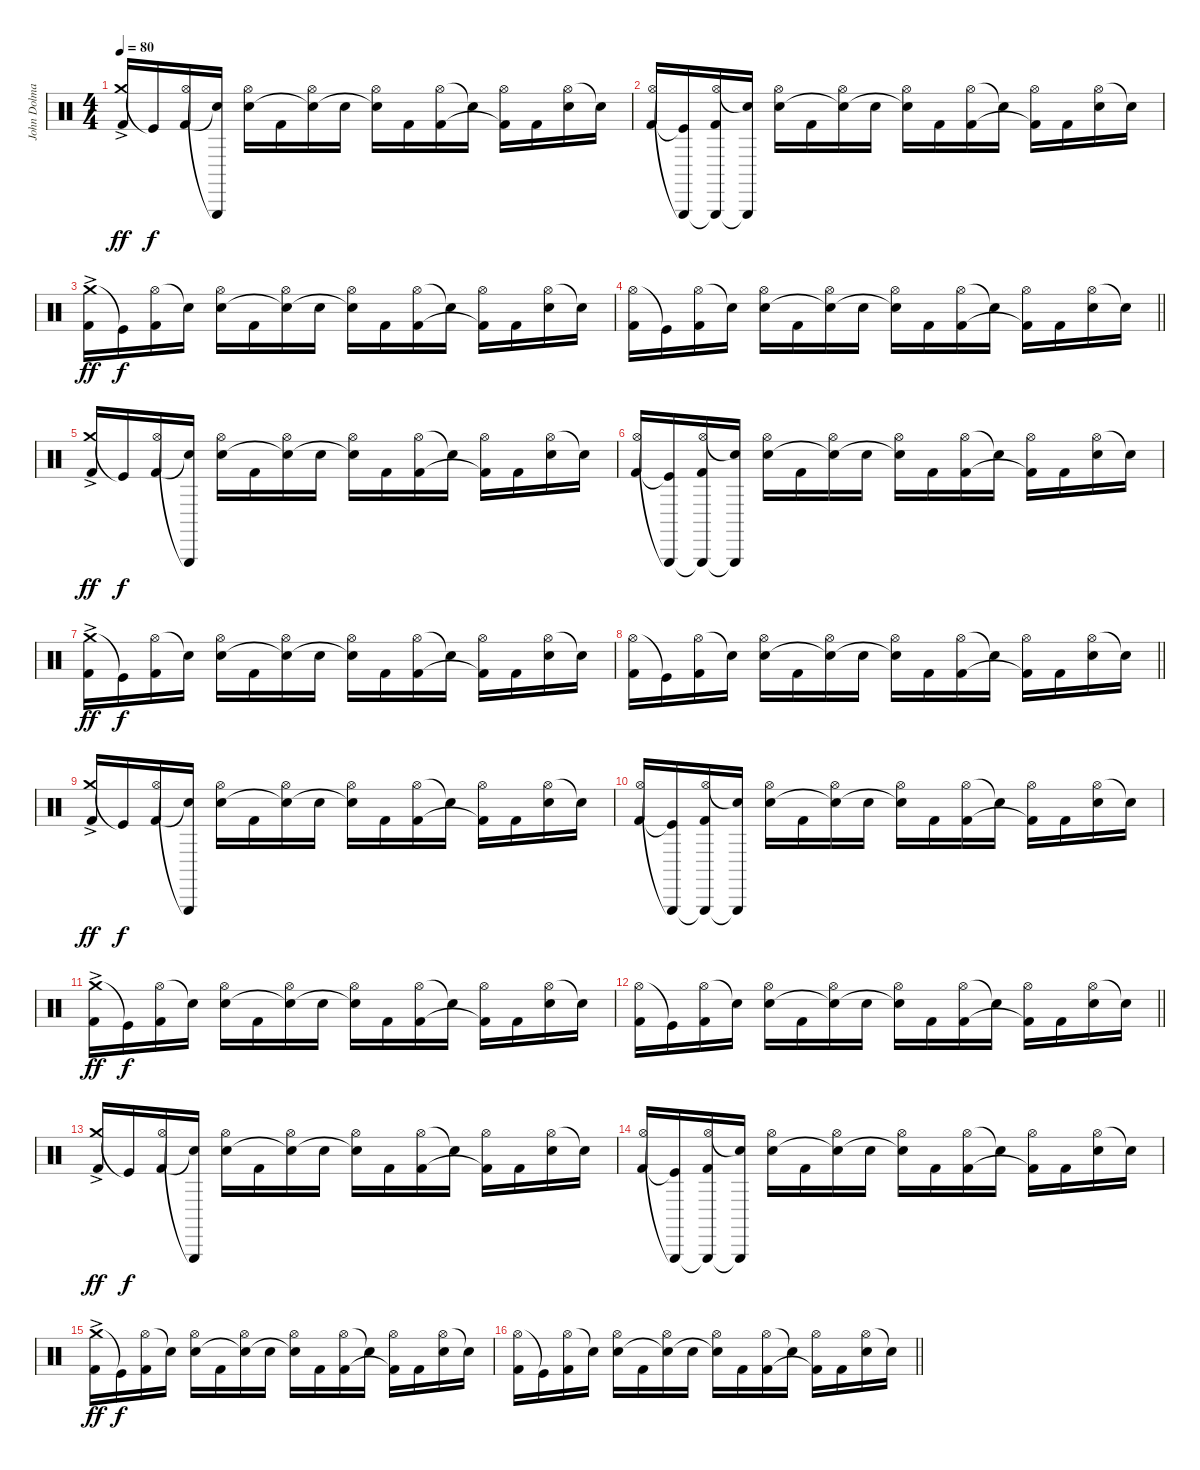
\track ("John Dolmayan (drums)" "John Dolma") {instrument percussion}
\staff
\articulation defaults
\ts (4 4)
\tempo 80
\clef neutral
\ks c
("Crash medium (hit)"{ac} "Kick (hit) 2").16{dy ff} "Kick (hit)"{t}.16{dy f} ("Hi-Hat (open)" "Kick (hit) 2").16 ("Triangle (hit)"{t} "Snare (hit)"{t}).16 ("Hi-Hat (open)" "Electric Snare (hit)").16 "Kick (hit) 2".16 ("Hi-Hat (open)" "Snare (hit)"{t}).16 "Electric Snare (hit)".16 ("Hi-Hat (open)" "Snare (hit)"{t}).16 "Kick (hit) 2".16 ("Hi-Hat (open)" "Kick (hit) 2").16 "Snare (hit)"{t}.16 ("Hi-Hat (open)" "Kick (hit) 2"{t}).16 "Kick (hit) 2".16 ("Hi-Hat (open)" "Electric Snare (hit)").16 "Snare (hit)"{t}.16 |
("Hi-Hat (open)" "Kick (hit) 2").16 ("Triangle (hit)"{t} "Kick (hit)"{t}).16 ("Triangle (hit)"{t} "Hi-Hat (open)" "Kick (hit) 2").16 ("Triangle (hit)"{t} "Snare (hit)"{t}).16 ("Hi-Hat (open)" "Electric Snare (hit)").16 "Kick (hit) 2".16 ("Hi-Hat (open)" "Snare (hit)"{t}).16 "Electric Snare (hit)".16 ("Hi-Hat (open)" "Snare (hit)"{t}).16 "Kick (hit) 2".16 ("Hi-Hat (open)" "Kick (hit) 2").16 "Snare (hit)"{t}.16 ("Hi-Hat (open)" "Kick (hit) 2"{t}).16 "Kick (hit) 2".16 ("Hi-Hat (open)" "Electric Snare (hit)").16 "Snare (hit)"{t}.16 |
("Crash medium (hit)"{ac} "Kick (hit) 2").16{dy ff} "Kick (hit)"{t}.16{dy f} ("Hi-Hat (open)" "Kick (hit) 2").16 "Snare (hit)"{t}.16 ("Hi-Hat (open)" "Electric Snare (hit)").16 "Kick (hit) 2".16 ("Hi-Hat (open)" "Snare (hit)"{t}).16 "Electric Snare (hit)".16 ("Hi-Hat (open)" "Snare (hit)"{t}).16 "Kick (hit) 2".16 ("Hi-Hat (open)" "Kick (hit) 2").16 "Snare (hit)"{t}.16 ("Hi-Hat (open)" "Kick (hit) 2"{t}).16 "Kick (hit) 2".16 ("Hi-Hat (open)" "Electric Snare (hit)").16 "Snare (hit)"{t}.16 |
\barLineRight lightlight
("Hi-Hat (open)" "Kick (hit) 2").16 "Kick (hit)"{t}.16 ("Hi-Hat (open)" "Kick (hit) 2").16 "Snare (hit)"{t}.16 ("Hi-Hat (open)" "Electric Snare (hit)").16 "Kick (hit) 2".16 ("Hi-Hat (open)" "Snare (hit)"{t}).16 "Electric Snare (hit)".16 ("Hi-Hat (open)" "Snare (hit)"{t}).16 "Kick (hit) 2".16 ("Hi-Hat (open)" "Kick (hit) 2").16 "Snare (hit)"{t}.16 ("Hi-Hat (open)" "Kick (hit) 2"{t}).16 "Kick (hit) 2".16 ("Hi-Hat (open)" "Electric Snare (hit)").16 "Snare (hit)"{t}.16 |
("Crash medium (hit)"{ac} "Kick (hit) 2").16{dy ff} "Kick (hit)"{t}.16{dy f} ("Hi-Hat (open)" "Kick (hit) 2").16 ("Triangle (hit)"{t} "Snare (hit)"{t}).16 ("Hi-Hat (open)" "Electric Snare (hit)").16 "Kick (hit) 2".16 ("Hi-Hat (open)" "Snare (hit)"{t}).16 "Electric Snare (hit)".16 ("Hi-Hat (open)" "Snare (hit)"{t}).16 "Kick (hit) 2".16 ("Hi-Hat (open)" "Kick (hit) 2").16 "Snare (hit)"{t}.16 ("Hi-Hat (open)" "Kick (hit) 2"{t}).16 "Kick (hit) 2".16 ("Hi-Hat (open)" "Electric Snare (hit)").16 "Snare (hit)"{t}.16 |
("Hi-Hat (open)" "Kick (hit) 2").16 ("Triangle (hit)"{t} "Kick (hit)"{t}).16 ("Triangle (hit)"{t} "Hi-Hat (open)" "Kick (hit) 2").16 ("Triangle (hit)"{t} "Snare (hit)"{t}).16 ("Hi-Hat (open)" "Electric Snare (hit)").16 "Kick (hit) 2".16 ("Hi-Hat (open)" "Snare (hit)"{t}).16 "Electric Snare (hit)".16 ("Hi-Hat (open)" "Snare (hit)"{t}).16 "Kick (hit) 2".16 ("Hi-Hat (open)" "Kick (hit) 2").16 "Snare (hit)"{t}.16 ("Hi-Hat (open)" "Kick (hit) 2"{t}).16 "Kick (hit) 2".16 ("Hi-Hat (open)" "Electric Snare (hit)").16 "Snare (hit)"{t}.16 |
("Crash medium (hit)"{ac} "Kick (hit) 2").16{dy ff} "Kick (hit)"{t}.16{dy f} ("Hi-Hat (open)" "Kick (hit) 2").16 "Snare (hit)"{t}.16 ("Hi-Hat (open)" "Electric Snare (hit)").16 "Kick (hit) 2".16 ("Hi-Hat (open)" "Snare (hit)"{t}).16 "Electric Snare (hit)".16 ("Hi-Hat (open)" "Snare (hit)"{t}).16 "Kick (hit) 2".16 ("Hi-Hat (open)" "Kick (hit) 2").16 "Snare (hit)"{t}.16 ("Hi-Hat (open)" "Kick (hit) 2"{t}).16 "Kick (hit) 2".16 ("Hi-Hat (open)" "Electric Snare (hit)").16 "Snare (hit)"{t}.16 |
\barLineRight lightlight
("Hi-Hat (open)" "Kick (hit) 2").16 "Kick (hit)"{t}.16 ("Hi-Hat (open)" "Kick (hit) 2").16 "Snare (hit)"{t}.16 ("Hi-Hat (open)" "Electric Snare (hit)").16 "Kick (hit) 2".16 ("Hi-Hat (open)" "Snare (hit)"{t}).16 "Electric Snare (hit)".16 ("Hi-Hat (open)" "Snare (hit)"{t}).16 "Kick (hit) 2".16 ("Hi-Hat (open)" "Kick (hit) 2").16 "Snare (hit)"{t}.16 ("Hi-Hat (open)" "Kick (hit) 2"{t}).16 "Kick (hit) 2".16 ("Hi-Hat (open)" "Electric Snare (hit)").16 "Snare (hit)"{t}.16 |
("Crash medium (hit)"{ac} "Kick (hit) 2").16{dy ff} "Kick (hit)"{t}.16{dy f} ("Hi-Hat (open)" "Kick (hit) 2").16 ("Triangle (hit)"{t} "Snare (hit)"{t}).16 ("Hi-Hat (open)" "Electric Snare (hit)").16 "Kick (hit) 2".16 ("Hi-Hat (open)" "Snare (hit)"{t}).16 "Electric Snare (hit)".16 ("Hi-Hat (open)" "Snare (hit)"{t}).16 "Kick (hit) 2".16 ("Hi-Hat (open)" "Kick (hit) 2").16 "Snare (hit)"{t}.16 ("Hi-Hat (open)" "Kick (hit) 2"{t}).16 "Kick (hit) 2".16 ("Hi-Hat (open)" "Electric Snare (hit)").16 "Snare (hit)"{t}.16 |
("Hi-Hat (open)" "Kick (hit) 2").16 ("Triangle (hit)"{t} "Kick (hit)"{t}).16 ("Triangle (hit)"{t} "Hi-Hat (open)" "Kick (hit) 2").16 ("Triangle (hit)"{t} "Snare (hit)"{t}).16 ("Hi-Hat (open)" "Electric Snare (hit)").16 "Kick (hit) 2".16 ("Hi-Hat (open)" "Snare (hit)"{t}).16 "Electric Snare (hit)".16 ("Hi-Hat (open)" "Snare (hit)"{t}).16 "Kick (hit) 2".16 ("Hi-Hat (open)" "Kick (hit) 2").16 "Snare (hit)"{t}.16 ("Hi-Hat (open)" "Kick (hit) 2"{t}).16 "Kick (hit) 2".16 ("Hi-Hat (open)" "Electric Snare (hit)").16 "Snare (hit)"{t}.16 |
("Crash medium (hit)"{ac} "Kick (hit) 2").16{dy ff} "Kick (hit)"{t}.16{dy f} ("Hi-Hat (open)" "Kick (hit) 2").16 "Snare (hit)"{t}.16 ("Hi-Hat (open)" "Electric Snare (hit)").16 "Kick (hit) 2".16 ("Hi-Hat (open)" "Snare (hit)"{t}).16 "Electric Snare (hit)".16 ("Hi-Hat (open)" "Snare (hit)"{t}).16 "Kick (hit) 2".16 ("Hi-Hat (open)" "Kick (hit) 2").16 "Snare (hit)"{t}.16 ("Hi-Hat (open)" "Kick (hit) 2"{t}).16 "Kick (hit) 2".16 ("Hi-Hat (open)" "Electric Snare (hit)").16 "Snare (hit)"{t}.16 |
\barLineRight lightlight
("Hi-Hat (open)" "Kick (hit) 2").16 "Kick (hit)"{t}.16 ("Hi-Hat (open)" "Kick (hit) 2").16 "Snare (hit)"{t}.16 ("Hi-Hat (open)" "Electric Snare (hit)").16 "Kick (hit) 2".16 ("Hi-Hat (open)" "Snare (hit)"{t}).16 "Electric Snare (hit)".16 ("Hi-Hat (open)" "Snare (hit)"{t}).16 "Kick (hit) 2".16 ("Hi-Hat (open)" "Kick (hit) 2").16 "Snare (hit)"{t}.16 ("Hi-Hat (open)" "Kick (hit) 2"{t}).16 "Kick (hit) 2".16 ("Hi-Hat (open)" "Electric Snare (hit)").16 "Snare (hit)"{t}.16 |
("Crash medium (hit)"{ac} "Kick (hit) 2").16{dy ff} "Kick (hit)"{t}.16{dy f} ("Hi-Hat (open)" "Kick (hit) 2").16 ("Triangle (hit)"{t} "Snare (hit)"{t}).16 ("Hi-Hat (open)" "Electric Snare (hit)").16 "Kick (hit) 2".16 ("Hi-Hat (open)" "Snare (hit)"{t}).16 "Electric Snare (hit)".16 ("Hi-Hat (open)" "Snare (hit)"{t}).16 "Kick (hit) 2".16 ("Hi-Hat (open)" "Kick (hit) 2").16 "Snare (hit)"{t}.16 ("Hi-Hat (open)" "Kick (hit) 2"{t}).16 "Kick (hit) 2".16 ("Hi-Hat (open)" "Electric Snare (hit)").16 "Snare (hit)"{t}.16 |
("Hi-Hat (open)" "Kick (hit) 2").16 ("Triangle (hit)"{t} "Kick (hit)"{t}).16 ("Triangle (hit)"{t} "Hi-Hat (open)" "Kick (hit) 2").16 ("Triangle (hit)"{t} "Snare (hit)"{t}).16 ("Hi-Hat (open)" "Electric Snare (hit)").16 "Kick (hit) 2".16 ("Hi-Hat (open)" "Snare (hit)"{t}).16 "Electric Snare (hit)".16 ("Hi-Hat (open)" "Snare (hit)"{t}).16 "Kick (hit) 2".16 ("Hi-Hat (open)" "Kick (hit) 2").16 "Snare (hit)"{t}.16 ("Hi-Hat (open)" "Kick (hit) 2"{t}).16 "Kick (hit) 2".16 ("Hi-Hat (open)" "Electric Snare (hit)").16 "Snare (hit)"{t}.16 |
("Crash medium (hit)"{ac} "Kick (hit) 2").16{dy ff} "Kick (hit)"{t}.16{dy f} ("Hi-Hat (open)" "Kick (hit) 2").16 "Snare (hit)"{t}.16 ("Hi-Hat (open)" "Electric Snare (hit)").16 "Kick (hit) 2".16 ("Hi-Hat (open)" "Snare (hit)"{t}).16 "Electric Snare (hit)".16 ("Hi-Hat (open)" "Snare (hit)"{t}).16 "Kick (hit) 2".16 ("Hi-Hat (open)" "Kick (hit) 2").16 "Snare (hit)"{t}.16 ("Hi-Hat (open)" "Kick (hit) 2"{t}).16 "Kick (hit) 2".16 ("Hi-Hat (open)" "Electric Snare (hit)").16 "Snare (hit)"{t}.16 |
\barLineRight lightlight
("Hi-Hat (open)" "Kick (hit) 2").16 "Kick (hit)"{t}.16 ("Hi-Hat (open)" "Kick (hit) 2").16 "Snare (hit)"{t}.16 ("Hi-Hat (open)" "Electric Snare (hit)").16 "Kick (hit) 2".16 ("Hi-Hat (open)" "Snare (hit)"{t}).16 "Electric Snare (hit)".16 ("Hi-Hat (open)" "Snare (hit)"{t}).16 "Kick (hit) 2".16 ("Hi-Hat (open)" "Kick (hit) 2").16 "Snare (hit)"{t}.16 ("Hi-Hat (open)" "Kick (hit) 2"{t}).16 "Kick (hit) 2".16 ("Hi-Hat (open)" "Electric Snare (hit)").16 "Snare (hit)"{t}.16
